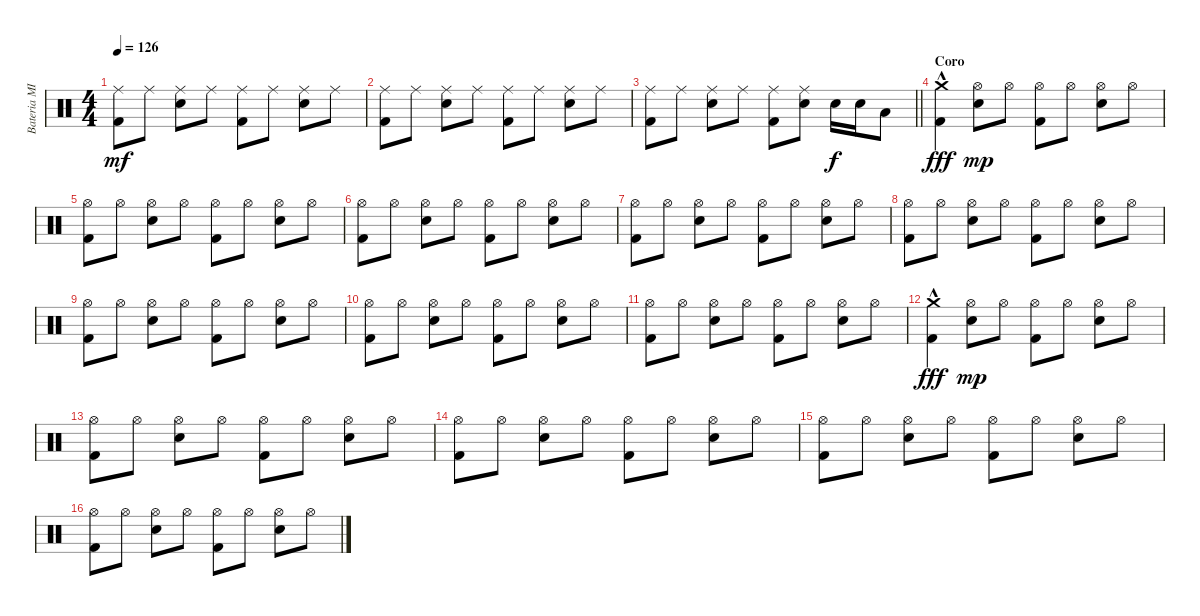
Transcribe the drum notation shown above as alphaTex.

\track ("Bateria MIDI" "Bateria MI") {instrument percussion}
\staff {score}
\articulation defaults
\ts (4 4)
\tempo 126
\clef neutral
\ks c
("Ride (middle)" "Kick (hit) 2").8{dy mf} "Ride (middle)".8 ("Ride (middle)" "Snare (hit) 2").8 "Ride (middle)".8 ("Ride (middle)" "Kick (hit) 2").8 "Ride (middle)".8 ("Ride (middle)" "Snare (hit) 2").8 "Ride (middle)".8 |
("Ride (middle)" "Kick (hit) 2").8 "Ride (middle)".8 ("Ride (middle)" "Snare (hit) 2").8 "Ride (middle)".8 ("Ride (middle)" "Kick (hit) 2").8 "Ride (middle)".8 ("Ride (middle)" "Snare (hit) 2").8 "Ride (middle)".8 |
\barLineRight lightlight
("Ride (middle)" "Kick (hit) 2").8 "Ride (middle)".8 ("Ride (middle)" "Snare (hit) 2").8 "Ride (middle)".8 ("Ride (middle)" "Kick (hit) 2").8 ("Ride (middle)" "Snare (hit) 2").8 "Snare (hit) 2".16{dy f} "Snare (hit) 2".16 "Low Tom (hit)".8 |
\section ("" "Coro")
("Crash medium (hit)"{hac} "Kick (hit) 2").4{dy fff} ("Hi-Hat (open)" "Snare (hit) 2").8{dy mp} "Hi-Hat (open)".8 ("Hi-Hat (open)" "Kick (hit) 2").8 "Hi-Hat (open)".8 ("Hi-Hat (open)" "Snare (hit) 2").8 "Hi-Hat (open)".8 |
("Hi-Hat (open)" "Kick (hit) 2").8 "Hi-Hat (open)".8 ("Hi-Hat (open)" "Snare (hit) 2").8 "Hi-Hat (open)".8 ("Hi-Hat (open)" "Kick (hit) 2").8 "Hi-Hat (open)".8 ("Hi-Hat (open)" "Snare (hit) 2").8 "Hi-Hat (open)".8 |
("Hi-Hat (open)" "Kick (hit) 2").8 "Hi-Hat (open)".8 ("Hi-Hat (open)" "Snare (hit) 2").8 "Hi-Hat (open)".8 ("Hi-Hat (open)" "Kick (hit) 2").8 "Hi-Hat (open)".8 ("Hi-Hat (open)" "Snare (hit) 2").8 "Hi-Hat (open)".8 |
("Hi-Hat (open)" "Kick (hit) 2").8 "Hi-Hat (open)".8 ("Hi-Hat (open)" "Snare (hit) 2").8 "Hi-Hat (open)".8 ("Hi-Hat (open)" "Kick (hit) 2").8 "Hi-Hat (open)".8 ("Hi-Hat (open)" "Snare (hit) 2").8 "Hi-Hat (open)".8 |
("Hi-Hat (open)" "Kick (hit) 2").8 "Hi-Hat (open)".8 ("Hi-Hat (open)" "Snare (hit) 2").8 "Hi-Hat (open)".8 ("Hi-Hat (open)" "Kick (hit) 2").8 "Hi-Hat (open)".8 ("Hi-Hat (open)" "Snare (hit) 2").8 "Hi-Hat (open)".8 |
("Hi-Hat (open)" "Kick (hit) 2").8 "Hi-Hat (open)".8 ("Hi-Hat (open)" "Snare (hit) 2").8 "Hi-Hat (open)".8 ("Hi-Hat (open)" "Kick (hit) 2").8 "Hi-Hat (open)".8 ("Hi-Hat (open)" "Snare (hit) 2").8 "Hi-Hat (open)".8 |
("Hi-Hat (open)" "Kick (hit) 2").8 "Hi-Hat (open)".8 ("Hi-Hat (open)" "Snare (hit) 2").8 "Hi-Hat (open)".8 ("Hi-Hat (open)" "Kick (hit) 2").8 "Hi-Hat (open)".8 ("Hi-Hat (open)" "Snare (hit) 2").8 "Hi-Hat (open)".8 |
("Hi-Hat (open)" "Kick (hit) 2").8 "Hi-Hat (open)".8 ("Hi-Hat (open)" "Snare (hit) 2").8 "Hi-Hat (open)".8 ("Hi-Hat (open)" "Kick (hit) 2").8 "Hi-Hat (open)".8 ("Hi-Hat (open)" "Snare (hit) 2").8 "Hi-Hat (open)".8 |
("Crash medium (hit)"{hac} "Kick (hit) 2").4{dy fff} ("Hi-Hat (open)" "Snare (hit) 2").8{dy mp} "Hi-Hat (open)".8 ("Hi-Hat (open)" "Kick (hit) 2").8 "Hi-Hat (open)".8 ("Hi-Hat (open)" "Snare (hit) 2").8 "Hi-Hat (open)".8 |
("Hi-Hat (open)" "Kick (hit) 2").8 "Hi-Hat (open)".8 ("Hi-Hat (open)" "Snare (hit) 2").8 "Hi-Hat (open)".8 ("Hi-Hat (open)" "Kick (hit) 2").8 "Hi-Hat (open)".8 ("Hi-Hat (open)" "Snare (hit) 2").8 "Hi-Hat (open)".8 |
("Hi-Hat (open)" "Kick (hit) 2").8 "Hi-Hat (open)".8 ("Hi-Hat (open)" "Snare (hit) 2").8 "Hi-Hat (open)".8 ("Hi-Hat (open)" "Kick (hit) 2").8 "Hi-Hat (open)".8 ("Hi-Hat (open)" "Snare (hit) 2").8 "Hi-Hat (open)".8 |
("Hi-Hat (open)" "Kick (hit) 2").8 "Hi-Hat (open)".8 ("Hi-Hat (open)" "Snare (hit) 2").8 "Hi-Hat (open)".8 ("Hi-Hat (open)" "Kick (hit) 2").8 "Hi-Hat (open)".8 ("Hi-Hat (open)" "Snare (hit) 2").8 "Hi-Hat (open)".8 |
("Hi-Hat (open)" "Kick (hit) 2").8 "Hi-Hat (open)".8 ("Hi-Hat (open)" "Snare (hit) 2").8 "Hi-Hat (open)".8 ("Hi-Hat (open)" "Kick (hit) 2").8 "Hi-Hat (open)".8 ("Hi-Hat (open)" "Snare (hit) 2").8 "Hi-Hat (open)".8
